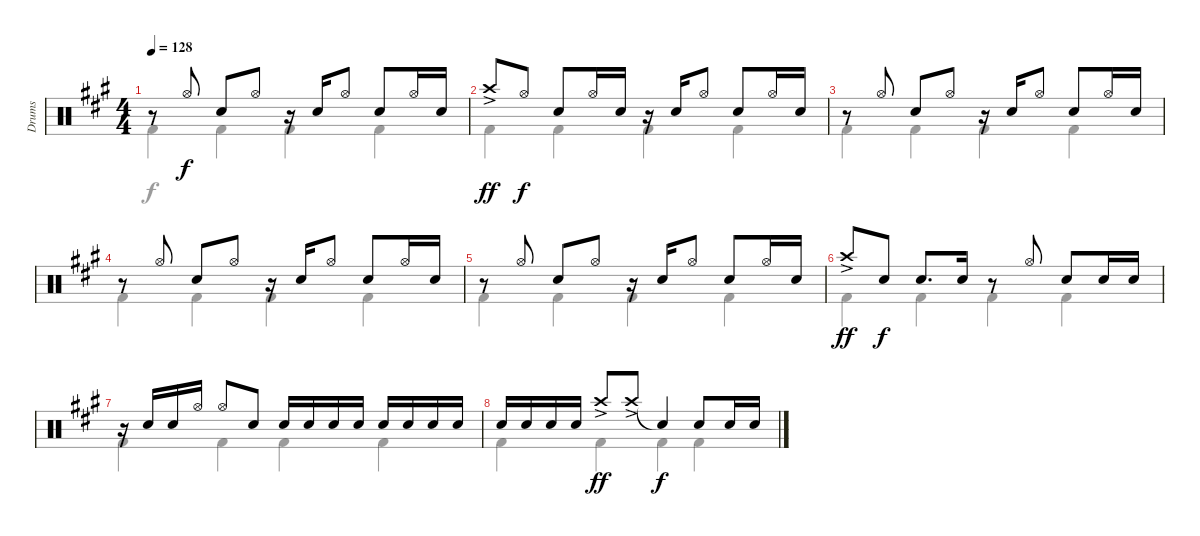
\track ("Drums" "Drums") {instrument percussion}
\staff {score}
\articulation defaults
\voice
\ts (4 4)
\tempo 128
\clef neutral
\ks a
r.8{dy f} "Hi-Hat (open)".8 "Snare (hit) 2".8 "Hi-Hat (open)".8 r.16 "Snare (hit) 2".16 "Hi-Hat (open)".8 "Snare (hit) 2".8 "Hi-Hat (open)".16 "Snare (hit) 2".16 |
"Crash high (hit)"{ac}.8{dy ff} "Hi-Hat (open)".8{dy f} "Snare (hit) 2".8 "Hi-Hat (open)".16 "Snare (hit) 2".16 r.16 "Snare (hit) 2".16 "Hi-Hat (open)".8 "Snare (hit) 2".8 "Hi-Hat (open)".16 "Snare (hit) 2".16 |
r.8 "Hi-Hat (open)".8 "Snare (hit) 2".8 "Hi-Hat (open)".8 r.16 "Snare (hit) 2".16 "Hi-Hat (open)".8 "Snare (hit) 2".8 "Hi-Hat (open)".16 "Snare (hit) 2".16 |
r.8 "Hi-Hat (open)".8 "Snare (hit) 2".8 "Hi-Hat (open)".8 r.16 "Snare (hit) 2".16 "Hi-Hat (open)".8 "Snare (hit) 2".8 "Hi-Hat (open)".16 "Snare (hit) 2".16 |
r.8 "Hi-Hat (open)".8 "Snare (hit) 2".8 "Hi-Hat (open)".8 r.16 "Snare (hit) 2".16 "Hi-Hat (open)".8 "Snare (hit) 2".8 "Hi-Hat (open)".16 "Snare (hit) 2".16 |
"Crash high (hit)"{ac}.8{dy ff} "Snare (hit) 2".8{dy f} "Snare (hit) 2".8{d} "Snare (hit) 2".16 r.8 "Hi-Hat (open)".8 "Snare (hit) 2".8 "Snare (hit) 2".16 "Snare (hit) 2".16 |
r.16 "Snare (hit) 2".16 "Snare (hit) 2".16 "Hi-Hat (open)".16 "Hi-Hat (open)".8 "Snare (hit) 2".8 "Snare (hit) 2".16 "Snare (hit) 2".16 "Snare (hit) 2".16 "Snare (hit) 2".16 "Snare (hit) 2".16 "Snare (hit) 2".16 "Snare (hit) 2".16 "Snare (hit) 2".16 |
"Snare (hit) 2".16 "Snare (hit) 2".16 "Snare (hit) 2".16 "Snare (hit) 2".16 "Crash high (hit)"{ac}.8{dy ff} "Crash high (hit)"{ac}.8 "Snare (hit)"{t}.4{dy f} "Snare (hit) 2".8 "Snare (hit) 2".16 "Snare (hit) 2".16
\voice
\clef neutral
\ottava regular
\simile none
\ks a "Kick (hit) 2".4{dy f} "Kick (hit) 2".4 "Kick (hit) 2".4 "Kick (hit) 2".4
|
"Kick (hit) 2".4 "Kick (hit) 2".4 "Kick (hit) 2".4 "Kick (hit) 2".4 |
"Kick (hit) 2".4 "Kick (hit) 2".4 "Kick (hit) 2".4 "Kick (hit) 2".4 |
"Kick (hit) 2".4 "Kick (hit) 2".4 "Kick (hit) 2".4 "Kick (hit) 2".4 |
"Kick (hit) 2".4 "Kick (hit) 2".4 "Kick (hit) 2".4 "Kick (hit) 2".4 |
"Kick (hit) 2".4 "Kick (hit) 2".4 "Kick (hit) 2".4 "Kick (hit) 2".4 |
"Kick (hit) 2".4 "Kick (hit) 2".4 "Kick (hit) 2".4 "Kick (hit) 2".4 |
"Kick (hit) 2".4 "Kick (hit) 2".4 "Kick (hit) 2".4 "Kick (hit) 2".4
